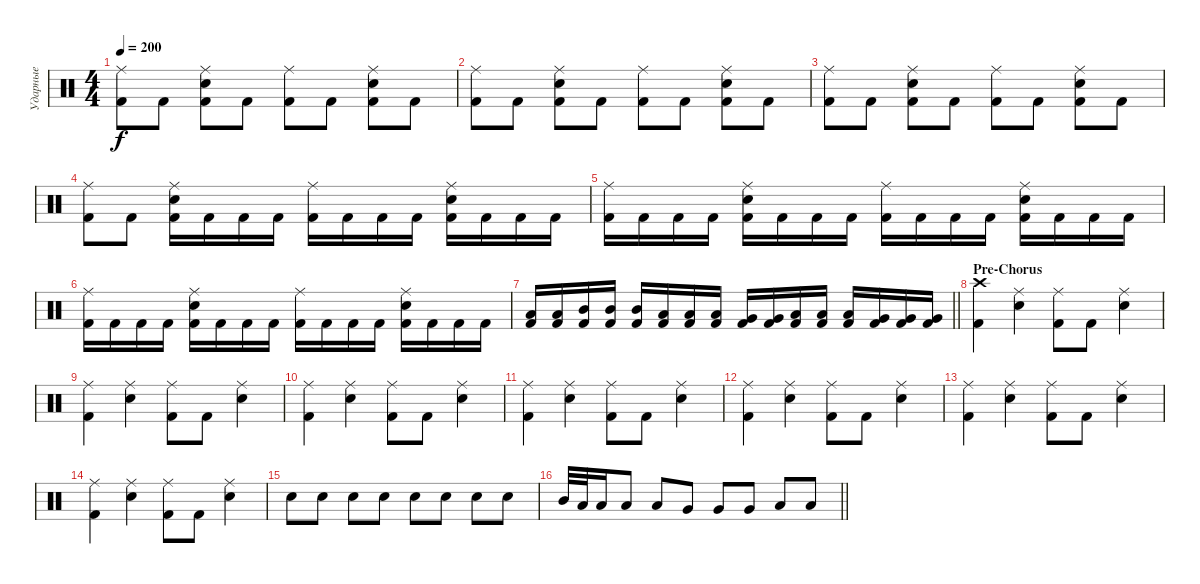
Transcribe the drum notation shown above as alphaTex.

\track ("Ударные" "Ударные") {instrument percussion}
\staff {score}
\articulation defaults
\ts (4 4)
\tempo 200
\clef neutral
\ks c
("Ride (middle)" "Kick (hit) 2").8{dy f} "Kick (hit) 2".8 ("Ride (middle)" "Electric Snare (hit)" "Kick (hit) 2").8 "Kick (hit) 2".8 ("Ride (middle)" "Kick (hit) 2").8 "Kick (hit) 2".8 ("Ride (middle)" "Electric Snare (hit)" "Kick (hit) 2").8 "Kick (hit) 2".8 |
("Ride (middle)" "Kick (hit) 2").8 "Kick (hit) 2".8 ("Ride (middle)" "Electric Snare (hit)" "Kick (hit) 2").8 "Kick (hit) 2".8 ("Ride (middle)" "Kick (hit) 2").8 "Kick (hit) 2".8 ("Ride (middle)" "Electric Snare (hit)" "Kick (hit) 2").8 "Kick (hit) 2".8 |
("Ride (middle)" "Kick (hit) 2").8 "Kick (hit) 2".8 ("Ride (middle)" "Electric Snare (hit)" "Kick (hit) 2").8 "Kick (hit) 2".8 ("Ride (middle)" "Kick (hit) 2").8 "Kick (hit) 2".8 ("Ride (middle)" "Electric Snare (hit)" "Kick (hit) 2").8 "Kick (hit) 2".8 |
("Ride (middle)" "Kick (hit) 2").8 "Kick (hit) 2".8 ("Ride (middle)" "Electric Snare (hit)" "Kick (hit) 2").16 "Kick (hit) 2".16 "Kick (hit) 2".16 "Kick (hit) 2".16 ("Ride (middle)" "Kick (hit) 2").16 "Kick (hit) 2".16 "Kick (hit) 2".16 "Kick (hit) 2".16 ("Ride (middle)" "Electric Snare (hit)" "Kick (hit) 2").16 "Kick (hit) 2".16 "Kick (hit) 2".16 "Kick (hit) 2".16 |
("Ride (middle)" "Kick (hit) 2").16 "Kick (hit) 2".16 "Kick (hit) 2".16 "Kick (hit) 2".16 ("Ride (middle)" "Electric Snare (hit)" "Kick (hit) 2").16 "Kick (hit) 2".16 "Kick (hit) 2".16 "Kick (hit) 2".16 ("Ride (middle)" "Kick (hit) 2").16 "Kick (hit) 2".16 "Kick (hit) 2".16 "Kick (hit) 2".16 ("Ride (middle)" "Electric Snare (hit)" "Kick (hit) 2").16 "Kick (hit) 2".16 "Kick (hit) 2".16 "Kick (hit) 2".16 |
("Ride (middle)" "Kick (hit) 2").16 "Kick (hit) 2".16 "Kick (hit) 2".16 "Kick (hit) 2".16 ("Ride (middle)" "Electric Snare (hit)" "Kick (hit) 2").16 "Kick (hit) 2".16 "Kick (hit) 2".16 "Kick (hit) 2".16 ("Ride (middle)" "Kick (hit) 2").16 "Kick (hit) 2".16 "Kick (hit) 2".16 "Kick (hit) 2".16 ("Ride (middle)" "Electric Snare (hit)" "Kick (hit) 2").16 "Kick (hit) 2".16 "Kick (hit) 2".16 "Kick (hit) 2".16 |
\barLineRight lightlight
("Low Tom (hit)" "Kick (hit) 2").16 ("Low Tom (hit)" "Kick (hit) 2").16 ("Mid Tom (hit)" "Kick (hit) 2").16 ("Mid Tom (hit)" "Kick (hit) 2").16 ("Mid Tom (hit)" "Kick (hit) 2").16 ("Low Tom (hit)" "Kick (hit) 2").16 ("Low Tom (hit)" "Kick (hit) 2").16 ("Low Tom (hit)" "Kick (hit) 2").16 ("Very Low Tom (hit)" "Kick (hit) 2").16 ("Very Low Tom (hit)" "Kick (hit) 2").16 ("Low Tom (hit)" "Kick (hit) 2").16 ("Low Tom (hit)" "Kick (hit) 2").16 ("Low Tom (hit)" "Kick (hit) 2").16 ("Very Low Tom (hit)" "Kick (hit) 2").16 ("Very Low Tom (hit)" "Kick (hit) 2").16 ("Very Low Tom (hit)" "Kick (hit) 2").16 |
\section ("" "Pre-Chorus")
("Crash high (hit)" "Kick (hit) 2").4 ("Ride (middle)" "Electric Snare (hit)").4 ("Ride (middle)" "Kick (hit) 2").8 "Kick (hit) 2".8 ("Ride (middle)" "Electric Snare (hit)").4 |
("Ride (middle)" "Kick (hit) 2").4 ("Ride (middle)" "Electric Snare (hit)").4 ("Ride (middle)" "Kick (hit) 2").8 "Kick (hit) 2".8 ("Ride (middle)" "Electric Snare (hit)").4 |
("Ride (middle)" "Kick (hit) 2").4 ("Ride (middle)" "Electric Snare (hit)").4 ("Ride (middle)" "Kick (hit) 2").8 "Kick (hit) 2".8 ("Ride (middle)" "Electric Snare (hit)").4 |
("Ride (middle)" "Kick (hit) 2").4 ("Ride (middle)" "Electric Snare (hit)").4 ("Ride (middle)" "Kick (hit) 2").8 "Kick (hit) 2".8 ("Ride (middle)" "Electric Snare (hit)").4 |
("Ride (middle)" "Kick (hit) 2").4 ("Ride (middle)" "Electric Snare (hit)").4 ("Ride (middle)" "Kick (hit) 2").8 "Kick (hit) 2".8 ("Ride (middle)" "Electric Snare (hit)").4 |
("Ride (middle)" "Kick (hit) 2").4 ("Ride (middle)" "Electric Snare (hit)").4 ("Ride (middle)" "Kick (hit) 2").8 "Kick (hit) 2".8 ("Ride (middle)" "Electric Snare (hit)").4 |
("Ride (middle)" "Kick (hit) 2").4 ("Ride (middle)" "Electric Snare (hit)").4 ("Ride (middle)" "Kick (hit) 2").8 "Kick (hit) 2".8 ("Ride (middle)" "Electric Snare (hit)").4 |
"Electric Snare (hit)".8 "Electric Snare (hit)".8 "Electric Snare (hit)".8 "Electric Snare (hit)".8 "Electric Snare (hit)".8 "Electric Snare (hit)".8 "Electric Snare (hit)".8 "Electric Snare (hit)".8 |
\barLineRight lightlight "Mid Tom (hit)".32 "Low Tom (hit)".32 "Low Tom (hit)".16 "Low Tom (hit)".8 "Low Tom (hit)".8 "Very Low Tom (hit)".8 "Very Low Tom (hit)".8 "Very Low Tom (hit)".8 "Low Floor Tom (hit)".8 "Low Floor Tom (hit)".8
